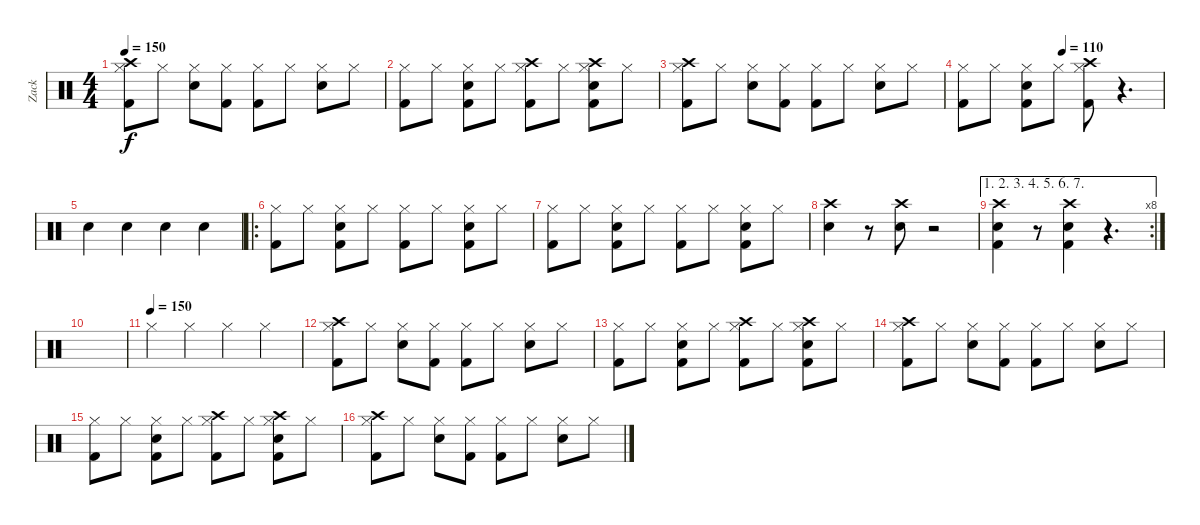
\track ("Zack" "Zack") {instrument percussion}
\staff {score}
\articulation defaults
\ts (4 4)
\tempo 150
\clef neutral
\ks c
("Hi-Hat (closed)" "Crash high (hit)" "Kick (hit) 2").8{dy f} "Hi-Hat (closed)".8 ("Hi-Hat (closed)" "Snare (hit) 2").8 ("Hi-Hat (closed)" "Kick (hit) 2").8 ("Hi-Hat (closed)" "Kick (hit) 2").8 "Hi-Hat (closed)".8 ("Hi-Hat (closed)" "Snare (hit) 2").8 "Hi-Hat (closed)".8 |
("Hi-Hat (closed)" "Kick (hit) 2").8 "Hi-Hat (closed)".8 ("Hi-Hat (closed)" "Snare (hit) 2" "Kick (hit) 2").8 "Hi-Hat (closed)".8 ("Hi-Hat (closed)" "Crash high (hit)" "Kick (hit) 2").8 "Hi-Hat (closed)".8 ("Hi-Hat (closed)" "Crash high (hit)" "Snare (hit) 2" "Kick (hit) 2").8 "Hi-Hat (closed)".8 |
("Hi-Hat (closed)" "Crash high (hit)" "Kick (hit) 2").8 "Hi-Hat (closed)".8 ("Hi-Hat (closed)" "Snare (hit) 2").8 ("Hi-Hat (closed)" "Kick (hit) 2").8 ("Hi-Hat (closed)" "Kick (hit) 2").8 "Hi-Hat (closed)".8 ("Hi-Hat (closed)" "Snare (hit) 2").8 "Hi-Hat (closed)".8 |
\tempo (110 0.5)
("Hi-Hat (closed)" "Kick (hit) 2").8 "Hi-Hat (closed)".8 ("Hi-Hat (closed)" "Snare (hit) 2" "Kick (hit) 2").8 "Hi-Hat (closed)".8 ("Hi-Hat (closed)" "Crash high (hit)" "Kick (hit) 2").8 r.4{d} |
"Snare (hit) 2".4 "Snare (hit) 2".4 "Snare (hit) 2".4 "Snare (hit) 2".4 |
\ro
("Hi-Hat (closed)" "Kick (hit) 2").8 "Hi-Hat (closed)".8 ("Hi-Hat (closed)" "Snare (hit) 2" "Kick (hit) 2").8 "Hi-Hat (closed)".8 ("Hi-Hat (closed)" "Kick (hit) 2").8 "Hi-Hat (closed)".8 ("Hi-Hat (closed)" "Snare (hit) 2" "Kick (hit) 2").8 "Hi-Hat (closed)".8 |
("Hi-Hat (closed)" "Kick (hit) 2").8 "Hi-Hat (closed)".8 ("Hi-Hat (closed)" "Snare (hit) 2" "Kick (hit) 2").8 "Hi-Hat (closed)".8 ("Hi-Hat (closed)" "Kick (hit) 2").8 "Hi-Hat (closed)".8 ("Hi-Hat (closed)" "Snare (hit) 2" "Kick (hit) 2").8 "Hi-Hat (closed)".8 |
("Crash high (hit)" "Snare (hit) 2").4 r.8 ("Crash high (hit)" "Snare (hit) 2").8 r.2 |
\ae (1 2 3 4 5 6 7)
\rc 8
("Crash high (hit)" "Snare (hit) 2" "Kick (hit) 2").4 r.8 ("Crash high (hit)" "Snare (hit) 2" "Kick (hit) 2").4 r.4{d} |
|
\tempo 140
\tempo (150)
"Hi-Hat (closed)".4 "Hi-Hat (closed)".4 "Hi-Hat (closed)".4 "Hi-Hat (closed)".4 |
("Hi-Hat (closed)" "Crash high (hit)" "Kick (hit) 2").8 "Hi-Hat (closed)".8 ("Hi-Hat (closed)" "Snare (hit) 2").8 ("Hi-Hat (closed)" "Kick (hit) 2").8 ("Hi-Hat (closed)" "Kick (hit) 2").8 "Hi-Hat (closed)".8 ("Hi-Hat (closed)" "Snare (hit) 2").8 "Hi-Hat (closed)".8 |
("Hi-Hat (closed)" "Kick (hit) 2").8 "Hi-Hat (closed)".8 ("Hi-Hat (closed)" "Snare (hit) 2" "Kick (hit) 2").8 "Hi-Hat (closed)".8 ("Hi-Hat (closed)" "Crash high (hit)" "Kick (hit) 2").8 "Hi-Hat (closed)".8 ("Hi-Hat (closed)" "Crash high (hit)" "Snare (hit) 2" "Kick (hit) 2").8 "Hi-Hat (closed)".8 |
("Hi-Hat (closed)" "Crash high (hit)" "Kick (hit) 2").8 "Hi-Hat (closed)".8 ("Hi-Hat (closed)" "Snare (hit) 2").8 ("Hi-Hat (closed)" "Kick (hit) 2").8 ("Hi-Hat (closed)" "Kick (hit) 2").8 "Hi-Hat (closed)".8 ("Hi-Hat (closed)" "Snare (hit) 2").8 "Hi-Hat (closed)".8 |
("Hi-Hat (closed)" "Kick (hit) 2").8 "Hi-Hat (closed)".8 ("Hi-Hat (closed)" "Snare (hit) 2" "Kick (hit) 2").8 "Hi-Hat (closed)".8 ("Hi-Hat (closed)" "Crash high (hit)" "Kick (hit) 2").8 "Hi-Hat (closed)".8 ("Hi-Hat (closed)" "Crash high (hit)" "Snare (hit) 2" "Kick (hit) 2").8 "Hi-Hat (closed)".8 |
("Hi-Hat (closed)" "Crash high (hit)" "Kick (hit) 2").8 "Hi-Hat (closed)".8 ("Hi-Hat (closed)" "Snare (hit) 2").8 ("Hi-Hat (closed)" "Kick (hit) 2").8 ("Hi-Hat (closed)" "Kick (hit) 2").8 "Hi-Hat (closed)".8 ("Hi-Hat (closed)" "Snare (hit) 2").8 "Hi-Hat (closed)".8
